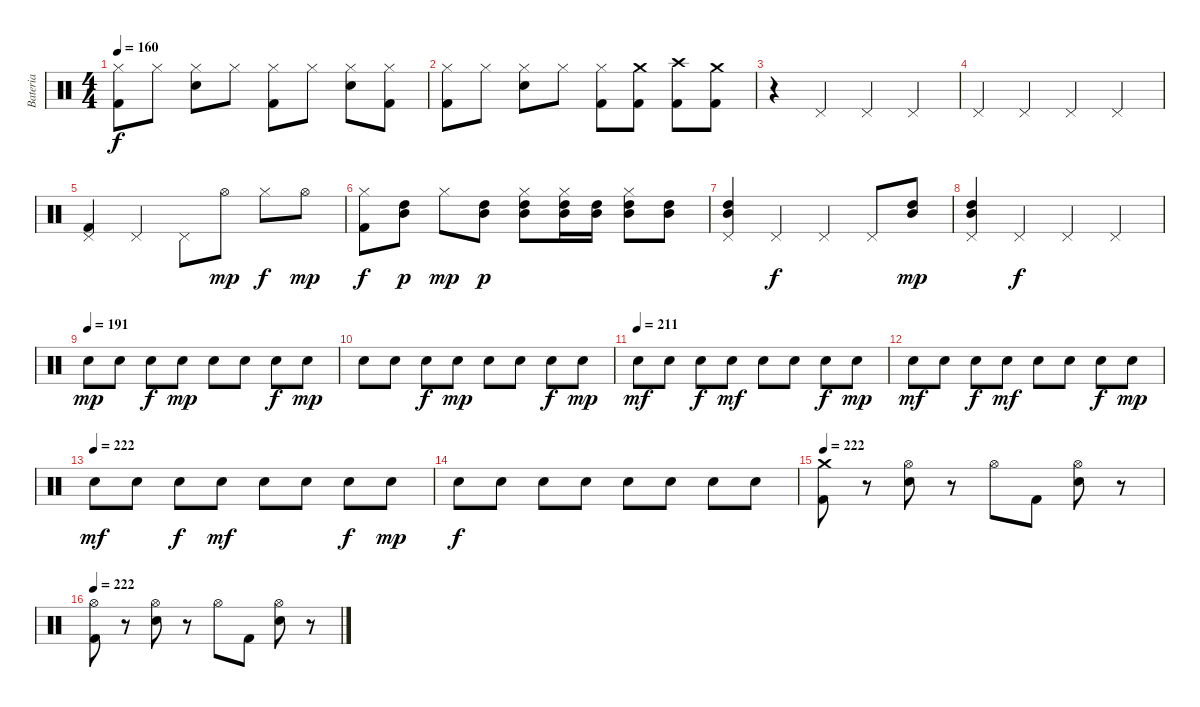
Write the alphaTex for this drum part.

\track ("Bateria" "Bateria") {instrument percussion}
\staff {score}
\articulation defaults
\ts (4 4)
\tempo 160
\clef neutral
\ks c
("Hi-Hat (closed)" "Kick (hit) 2").8{dy f} "Hi-Hat (closed)".8 ("Hi-Hat (closed)" "Electric Snare (hit)").8 "Hi-Hat (closed)".8 ("Hi-Hat (closed)" "Kick (hit) 2").8 "Hi-Hat (closed)".8 ("Hi-Hat (closed)" "Electric Snare (hit)").8 ("Hi-Hat (closed)" "Kick (hit) 2").8 |
("Hi-Hat (closed)" "Kick (hit) 2").8 "Hi-Hat (closed)".8 ("Hi-Hat (closed)" "Electric Snare (hit)").8 "Hi-Hat (closed)".8 ("Hi-Hat (closed)" "Kick (hit) 2").8 ("Crash medium (hit)" "Kick (hit) 2").8 ("Crash high (hit)" "Kick (hit) 2").8 ("Crash medium (hit)" "Kick (hit) 2").8 |
r.4 "Pedal Hi-Hat (hit)".4 "Pedal Hi-Hat (hit)".4 "Pedal Hi-Hat (hit)".4 |
"Pedal Hi-Hat (hit)".4 "Pedal Hi-Hat (hit)".4 "Pedal Hi-Hat (hit)".4 "Pedal Hi-Hat (hit)".4 |
("Kick (hit) 2" "Pedal Hi-Hat (hit)").4 "Pedal Hi-Hat (hit)".4 "Pedal Hi-Hat (hit)".8 "Hi-Hat (open)".8{dy mp} "Hi-Hat (closed)".8{dy f} "Hi-Hat (open)".8{dy mp} |
("Kick (hit) 2" "Hi-Hat (closed)").8{dy f} ("Mid Tom (hit)" "High Tom (hit)").8{dy p} "Hi-Hat (closed)".8{dy mp} ("Mid Tom (hit)" "High Tom (hit)").8{dy p} ("Hi-Hat (closed)" "Mid Tom (hit)" "High Tom (hit)").8 ("Hi-Hat (closed)" "Mid Tom (hit)" "High Tom (hit)").16 ("Mid Tom (hit)" "High Tom (hit)").16 ("Hi-Hat (closed)" "Mid Tom (hit)" "High Tom (hit)").8 ("Mid Tom (hit)" "High Tom (hit)").8 |
("Pedal Hi-Hat (hit)" "Mid Tom (hit)" "High Tom (hit)").4 "Pedal Hi-Hat (hit)".4{dy f} "Pedal Hi-Hat (hit)".4 "Pedal Hi-Hat (hit)".8 ("High Tom (hit)" "Mid Tom (hit)").8{dy mp} |
("High Tom (hit)" "Pedal Hi-Hat (hit)" "Mid Tom (hit)").4 "Pedal Hi-Hat (hit)".4{dy f} "Pedal Hi-Hat (hit)".4 "Pedal Hi-Hat (hit)".4 |
\tempo (191)
"Snare (hit) 2".8{dy mp} "Snare (hit) 2".8 "Snare (hit) 2".8{dy f} "Snare (hit) 2".8{dy mp} "Snare (hit) 2".8 "Snare (hit) 2".8 "Snare (hit) 2".8{dy f} "Snare (hit) 2".8{dy mp} |
"Snare (hit) 2".8 "Snare (hit) 2".8 "Snare (hit) 2".8{dy f} "Snare (hit) 2".8{dy mp} "Snare (hit) 2".8 "Snare (hit) 2".8 "Snare (hit) 2".8{dy f} "Snare (hit) 2".8{dy mp} |
\tempo (211)
"Snare (hit) 2".8{dy mf} "Snare (hit) 2".8 "Snare (hit) 2".8{dy f} "Snare (hit) 2".8{dy mf} "Snare (hit) 2".8 "Snare (hit) 2".8 "Snare (hit) 2".8{dy f} "Snare (hit) 2".8{dy mp} |
"Snare (hit) 2".8{dy mf} "Snare (hit) 2".8 "Snare (hit) 2".8{dy f} "Snare (hit) 2".8{dy mf} "Snare (hit) 2".8 "Snare (hit) 2".8 "Snare (hit) 2".8{dy f} "Snare (hit) 2".8{dy mp} |
\tempo (222)
"Snare (hit) 2".8{dy mf} "Snare (hit) 2".8 "Snare (hit) 2".8{dy f} "Snare (hit) 2".8{dy mf} "Snare (hit) 2".8 "Snare (hit) 2".8 "Snare (hit) 2".8{dy f} "Snare (hit) 2".8{dy mp} |
"Snare (hit) 2".8{dy f} "Snare (hit) 2".8 "Snare (hit) 2".8 "Snare (hit) 2".8 "Snare (hit) 2".8 "Snare (hit) 2".8 "Snare (hit) 2".8 "Snare (hit) 2".8 |
\tempo 222
("Crash medium (hit)" "Kick (hit) 2").8 r.8 ("Hi-Hat (open)" "Electric Snare (hit)").8 r.8 "Hi-Hat (open)".8 "Kick (hit) 2".8 ("Hi-Hat (open)" "Electric Snare (hit)").8 r.8 |
\tempo 222
("Hi-Hat (open)" "Kick (hit) 2").8 r.8 ("Hi-Hat (open)" "Electric Snare (hit)").8 r.8 "Hi-Hat (open)".8 "Kick (hit) 2".8 ("Hi-Hat (open)" "Electric Snare (hit)").8 r.8
